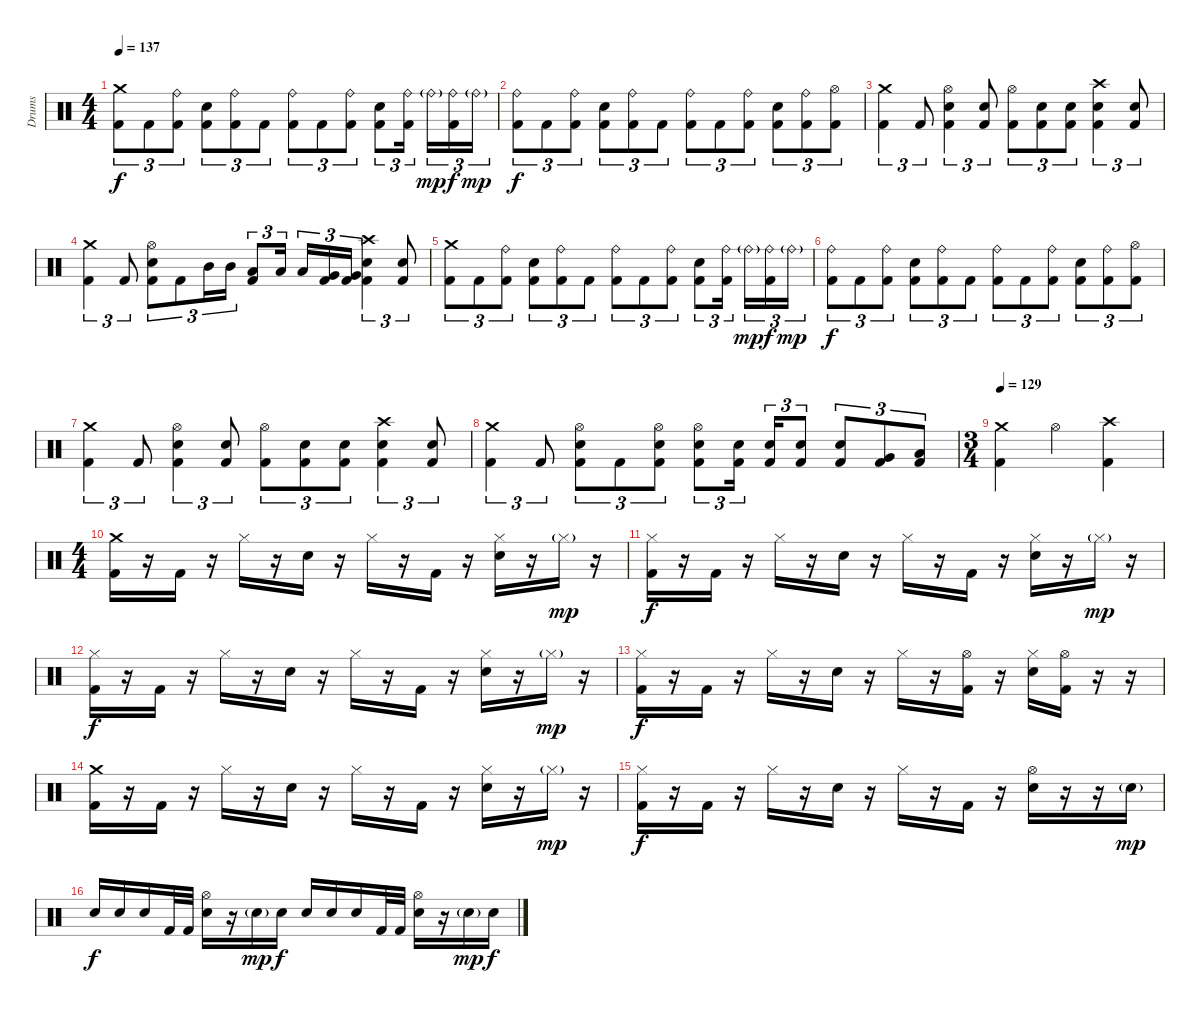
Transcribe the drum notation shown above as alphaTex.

\track ("Drums" "Drums") {instrument percussion}
\staff {score}
\articulation defaults
\ts (4 4)
\section ("" "")
\tempo 137
\clef neutral
\ks c
("Crash medium (hit)" "Kick (hit) 2").8{tu (3 2) dy f} "Kick (hit) 2".8{tu (3 2)} ("Ride (bell)" "Kick (hit) 2").8{tu (3 2)} ("Electric Snare (hit)" "Kick (hit) 2").8{tu (3 2)} ("Ride (bell)" "Kick (hit) 2").8{tu (3 2)} "Kick (hit) 2".8{tu (3 2)} ("Ride (bell)" "Kick (hit) 2").8{tu (3 2)} "Kick (hit) 2".8{tu (3 2)} ("Ride (bell)" "Kick (hit) 2").8{tu (3 2)} ("Electric Snare (hit)" "Kick (hit) 2").8{tu (3 2)} ("Ride (bell)" "Kick (hit) 2").16{tu (3 2)} "Ride (bell)"{g}.16{tu (3 2) dy mp} ("Ride (bell)" "Kick (hit) 2").16{tu (3 2) dy f} "Ride (bell)"{g}.16{tu (3 2) dy mp} |
("Ride (bell)" "Kick (hit) 2").8{tu (3 2) dy f} "Kick (hit) 2".8{tu (3 2)} ("Ride (bell)" "Kick (hit) 2").8{tu (3 2)} ("Electric Snare (hit)" "Kick (hit) 2").8{tu (3 2)} ("Ride (bell)" "Kick (hit) 2").8{tu (3 2)} "Kick (hit) 2".8{tu (3 2)} ("Ride (bell)" "Kick (hit) 2").8{tu (3 2)} "Kick (hit) 2".8{tu (3 2)} ("Ride (bell)" "Kick (hit) 2").8{tu (3 2)} ("Electric Snare (hit)" "Kick (hit) 2").8{tu (3 2)} ("Ride (bell)" "Kick (hit) 2").8{tu (3 2)} ("Hi-Hat (open)" "Kick (hit) 2").8{tu (3 2)} |
("Crash medium (hit)" "Kick (hit) 2").4{tu (3 2)} "Kick (hit) 2".8{tu (3 2)} ("Hi-Hat (open)" "Electric Snare (hit)" "Kick (hit) 2").4{tu (3 2)} ("Electric Snare (hit)" "Kick (hit) 2").8{tu (3 2)} ("Hi-Hat (open)" "Kick (hit) 2").8{tu (3 2)} ("Electric Snare (hit)" "Kick (hit) 2").8{tu (3 2)} ("Electric Snare (hit)" "Kick (hit) 2").8{tu (3 2)} ("Crash high (hit)" "Electric Snare (hit)" "Kick (hit) 2").4{tu (3 2)} ("Electric Snare (hit)" "Kick (hit) 2").8{tu (3 2)} |
("Crash medium (hit)" "Kick (hit) 2").4{tu (3 2)} "Kick (hit) 2".8{tu (3 2)} ("Hi-Hat (open)" "Electric Snare (hit)" "Kick (hit) 2").8{tu (3 2)} "Kick (hit) 2".8{tu (3 2)} "Mid Tom (hit)".16{tu (3 2)} "Mid Tom (hit)".16{tu (3 2)} ("Low Tom (hit)" "Kick (hit) 2").8{tu (3 2)} "Low Tom (hit)".16{tu (3 2)} "Low Tom (hit)".16{tu (3 2)} ("Very Low Tom (hit)" "Kick (hit) 2").16{tu (3 2)} ("Very Low Tom (hit)" "Kick (hit) 2").16{tu (3 2)} ("Crash high (hit)" "Electric Snare (hit)" "Kick (hit) 2").4{tu (3 2)} ("Electric Snare (hit)" "Kick (hit) 2").8{tu (3 2)} |
("Crash medium (hit)" "Kick (hit) 2").8{tu (3 2)} "Kick (hit) 2".8{tu (3 2)} ("Ride (bell)" "Kick (hit) 2").8{tu (3 2)} ("Electric Snare (hit)" "Kick (hit) 2").8{tu (3 2)} ("Ride (bell)" "Kick (hit) 2").8{tu (3 2)} "Kick (hit) 2".8{tu (3 2)} ("Ride (bell)" "Kick (hit) 2").8{tu (3 2)} "Kick (hit) 2".8{tu (3 2)} ("Ride (bell)" "Kick (hit) 2").8{tu (3 2)} ("Electric Snare (hit)" "Kick (hit) 2").8{tu (3 2)} ("Ride (bell)" "Kick (hit) 2").16{tu (3 2)} "Ride (bell)"{g}.16{tu (3 2) dy mp} ("Ride (bell)" "Kick (hit) 2").16{tu (3 2) dy f} "Ride (bell)"{g}.16{tu (3 2) dy mp} |
("Ride (bell)" "Kick (hit) 2").8{tu (3 2) dy f} "Kick (hit) 2".8{tu (3 2)} ("Ride (bell)" "Kick (hit) 2").8{tu (3 2)} ("Electric Snare (hit)" "Kick (hit) 2").8{tu (3 2)} ("Ride (bell)" "Kick (hit) 2").8{tu (3 2)} "Kick (hit) 2".8{tu (3 2)} ("Ride (bell)" "Kick (hit) 2").8{tu (3 2)} "Kick (hit) 2".8{tu (3 2)} ("Ride (bell)" "Kick (hit) 2").8{tu (3 2)} ("Electric Snare (hit)" "Kick (hit) 2").8{tu (3 2)} ("Ride (bell)" "Kick (hit) 2").8{tu (3 2)} ("Hi-Hat (open)" "Kick (hit) 2").8{tu (3 2)} |
("Crash medium (hit)" "Kick (hit) 2").4{tu (3 2)} "Kick (hit) 2".8{tu (3 2)} ("Hi-Hat (open)" "Electric Snare (hit)" "Kick (hit) 2").4{tu (3 2)} ("Electric Snare (hit)" "Kick (hit) 2").8{tu (3 2)} ("Hi-Hat (open)" "Kick (hit) 2").8{tu (3 2)} ("Electric Snare (hit)" "Kick (hit) 2").8{tu (3 2)} ("Electric Snare (hit)" "Kick (hit) 2").8{tu (3 2)} ("Crash high (hit)" "Electric Snare (hit)" "Kick (hit) 2").4{tu (3 2)} ("Electric Snare (hit)" "Kick (hit) 2").8{tu (3 2)} |
("Crash medium (hit)" "Kick (hit) 2").4{tu (3 2)} "Kick (hit) 2".8{tu (3 2)} ("Hi-Hat (open)" "Electric Snare (hit)" "Kick (hit) 2").8{tu (3 2)} "Kick (hit) 2".8{tu (3 2)} ("Hi-Hat (open)" "Electric Snare (hit)" "Kick (hit) 2").8{tu (3 2)} ("Hi-Hat (open)" "Electric Snare (hit)" "Kick (hit) 2").8{tu (3 2)} ("Electric Snare (hit)" "Kick (hit) 2").16{tu (3 2)} ("Electric Snare (hit)" "Kick (hit) 2").16{tu (3 2)} ("Electric Snare (hit)" "Kick (hit) 2").8{tu (3 2)} ("Electric Snare (hit)" "Kick (hit) 2").8{tu (3 2)} ("Very Low Tom (hit)" "Kick (hit) 2").8{tu (3 2)} ("Low Tom (hit)" "Kick (hit) 2").8{tu (3 2)} |
\ts (3 4)
\section ("" "")
\tempo 129
("Crash medium (hit)" "Kick (hit) 2").4 "Hi-Hat (open)".4 ("Crash high (hit)" "Kick (hit) 2").4 |
\ts (4 4)
("Crash medium (hit)" "Kick (hit) 2").16 r.16 "Kick (hit) 2".16 r.16 "Hi-Hat (closed)".16 r.16 "Electric Snare (hit)".16 r.16 "Hi-Hat (closed)".16 r.16 "Kick (hit) 2".16 r.16 ("Hi-Hat (closed)" "Electric Snare (hit)").16 r.16 "Hi-Hat (closed)"{g}.16{dy mp} r.16 |
("Hi-Hat (closed)" "Kick (hit) 2").16{dy f} r.16 "Kick (hit) 2".16 r.16 "Hi-Hat (closed)".16 r.16 "Electric Snare (hit)".16 r.16 "Hi-Hat (closed)".16 r.16 "Kick (hit) 2".16 r.16 ("Hi-Hat (closed)" "Electric Snare (hit)").16 r.16 "Hi-Hat (closed)"{g}.16{dy mp} r.16 |
("Hi-Hat (closed)" "Kick (hit) 2").16{dy f} r.16 "Kick (hit) 2".16 r.16 "Hi-Hat (closed)".16 r.16 "Electric Snare (hit)".16 r.16 "Hi-Hat (closed)".16 r.16 "Kick (hit) 2".16 r.16 ("Hi-Hat (closed)" "Electric Snare (hit)").16 r.16 "Hi-Hat (closed)"{g}.16{dy mp} r.16 |
("Hi-Hat (closed)" "Kick (hit) 2").16{dy f} r.16 "Kick (hit) 2".16 r.16 "Hi-Hat (closed)".16 r.16 "Electric Snare (hit)".16 r.16 "Hi-Hat (closed)".16 r.16 ("Hi-Hat (open)" "Kick (hit) 2").16 r.16 ("Hi-Hat (closed)" "Electric Snare (hit)").16 ("Hi-Hat (open)" "Kick (hit) 2").16 r.16 r.16 |
("Crash medium (hit)" "Kick (hit) 2").16 r.16 "Kick (hit) 2".16 r.16 "Hi-Hat (closed)".16 r.16 "Electric Snare (hit)".16 r.16 "Hi-Hat (closed)".16 r.16 "Kick (hit) 2".16 r.16 ("Hi-Hat (closed)" "Electric Snare (hit)").16 r.16 "Hi-Hat (closed)"{g}.16{dy mp} r.16 |
("Hi-Hat (closed)" "Kick (hit) 2").16{dy f} r.16 "Kick (hit) 2".16 r.16 "Hi-Hat (closed)".16 r.16 "Electric Snare (hit)".16 r.16 "Hi-Hat (closed)".16 r.16 "Kick (hit) 2".16 r.16 ("Hi-Hat (open)" "Electric Snare (hit)").16 r.16 r.16 "Electric Snare (hit)"{g}.16{dy mp} |
"Electric Snare (hit)".16{dy f} "Electric Snare (hit)".16 "Electric Snare (hit)".16 "Kick (hit) 2".32 "Kick (hit) 2".32 ("Hi-Hat (open)" "Electric Snare (hit)").16 r.16 "Electric Snare (hit)"{g}.16{dy mp} "Electric Snare (hit)".16{dy f} "Electric Snare (hit)".16 "Electric Snare (hit)".16 "Electric Snare (hit)".16 "Kick (hit) 2".32 "Kick (hit) 2".32 ("Hi-Hat (open)" "Electric Snare (hit)").16 r.16 "Electric Snare (hit)"{g}.16{dy mp} "Electric Snare (hit)".16{dy f}
